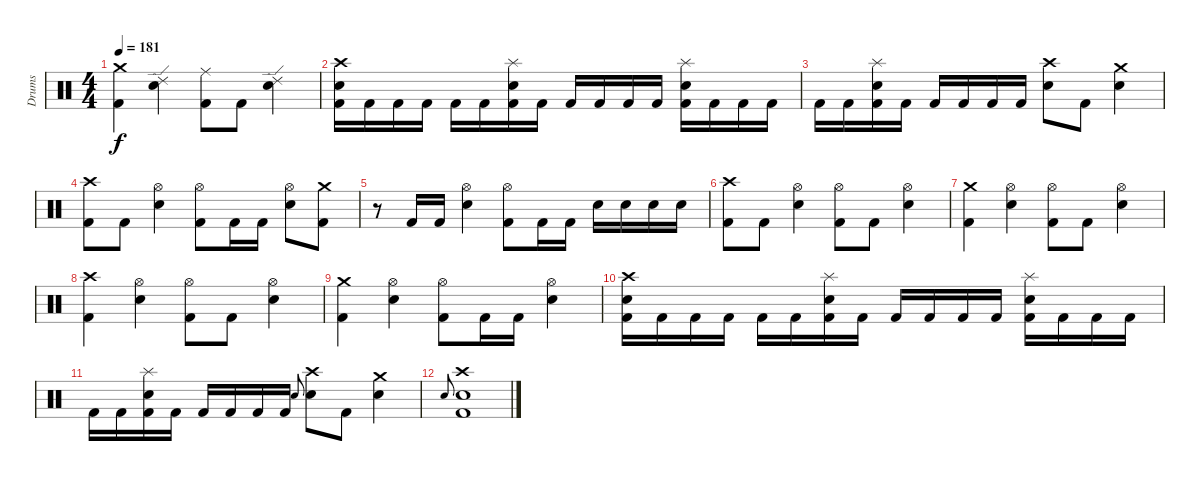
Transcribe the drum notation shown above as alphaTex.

\track ("Drums" "Drums") {instrument percussion}
\staff {score}
\articulation defaults
\ts (4 4)
\tempo 181
\clef neutral
\ks c
("Crash medium (hit)" "Kick (hit) 2").4{dy f} ("Ride (edge) 2" "Snare (hit) 2").4 ("Ride (middle)" "Kick (hit) 2").8 "Kick (hit) 2".8 ("Ride (edge) 2" "Snare (hit) 2").4 |
("Crash high (hit)" "Snare (hit) 2" "Kick (hit) 2").16 "Kick (hit) 2".16 "Kick (hit) 2".16 "Kick (hit) 2".16 "Kick (hit) 2".16 "Kick (hit) 2".16 ("Splash (hit)" "Snare (hit) 2" "Kick (hit) 2").16 "Kick (hit) 2".16 "Kick (hit) 2".16 "Kick (hit) 2".16 "Kick (hit) 2".16 "Kick (hit) 2".16 ("Splash (hit)" "Snare (hit) 2" "Kick (hit) 2").16 "Kick (hit) 2".16 "Kick (hit) 2".16 "Kick (hit) 2".16 |
"Kick (hit) 2".16 "Kick (hit) 2".16 ("Splash (hit)" "Snare (hit) 2" "Kick (hit) 2").16 "Kick (hit) 2".16 "Kick (hit) 2".16 "Kick (hit) 2".16 "Kick (hit) 2".16 "Kick (hit) 2".16 ("Crash high (hit)" "Snare (hit) 2").8 "Kick (hit) 2".8 ("Crash medium (hit)" "Snare (hit) 2").4 |
("Crash high (hit)" "Kick (hit) 2").8 "Kick (hit) 2".8 ("Hi-Hat (open)" "Snare (hit) 2").4 ("Hi-Hat (open)" "Kick (hit) 2").8 "Kick (hit) 2".16 "Kick (hit) 2".16 ("Hi-Hat (open)" "Snare (hit) 2").8 ("Crash medium (hit)" "Kick (hit) 2").8 |
r.8 "Kick (hit) 2".16 "Kick (hit) 2".16 ("Hi-Hat (open)" "Snare (hit) 2").4 ("Hi-Hat (open)" "Kick (hit) 2").8 "Kick (hit) 2".16 "Kick (hit) 2".16 "Snare (hit) 2".16 "Snare (hit) 2".16 "Snare (hit) 2".16 "Snare (hit) 2".16 |
("Crash high (hit)" "Kick (hit) 2").8 "Kick (hit) 2".8 ("Hi-Hat (open)" "Snare (hit) 2").4 ("Hi-Hat (open)" "Kick (hit) 2").8 "Kick (hit) 2".8 ("Hi-Hat (open)" "Snare (hit) 2").4 |
("Crash medium (hit)" "Kick (hit) 2").4 ("Hi-Hat (open)" "Snare (hit) 2").4 ("Hi-Hat (open)" "Kick (hit) 2").8 "Kick (hit) 2".8 ("Hi-Hat (open)" "Snare (hit) 2").4 |
("Crash high (hit)" "Kick (hit) 2").4 ("Hi-Hat (open)" "Snare (hit) 2").4 ("Hi-Hat (open)" "Kick (hit) 2").8 "Kick (hit) 2".8 ("Hi-Hat (open)" "Snare (hit) 2").4 |
("Crash medium (hit)" "Kick (hit) 2").4 ("Hi-Hat (open)" "Snare (hit) 2").4 ("Hi-Hat (open)" "Kick (hit) 2").8 "Kick (hit) 2".16 "Kick (hit) 2".16 ("Hi-Hat (open)" "Snare (hit) 2").4 |
("Crash high (hit)" "Snare (hit) 2" "Kick (hit) 2").16 "Kick (hit) 2".16 "Kick (hit) 2".16 "Kick (hit) 2".16 "Kick (hit) 2".16 "Kick (hit) 2".16 ("Splash (hit)" "Snare (hit) 2" "Kick (hit) 2").16 "Kick (hit) 2".16 "Kick (hit) 2".16 "Kick (hit) 2".16 "Kick (hit) 2".16 "Kick (hit) 2".16 ("Splash (hit)" "Snare (hit) 2" "Kick (hit) 2").16 "Kick (hit) 2".16 "Kick (hit) 2".16 "Kick (hit) 2".16 |
"Kick (hit) 2".16 "Kick (hit) 2".16 ("Splash (hit)" "Snare (hit) 2" "Kick (hit) 2").16 "Kick (hit) 2".16 "Kick (hit) 2".16 "Kick (hit) 2".16 "Kick (hit) 2".16 "Kick (hit) 2".16 "Snare (hit) 2".8{gr onbeat} ("Crash high (hit)" "Snare (hit) 2").8 "Kick (hit) 2".8 ("Crash medium (hit)" "Snare (hit) 2").4 |
"Snare (hit) 2".8{gr onbeat} ("Crash high (hit)" "Snare (hit) 2" "Kick (hit) 2").1
